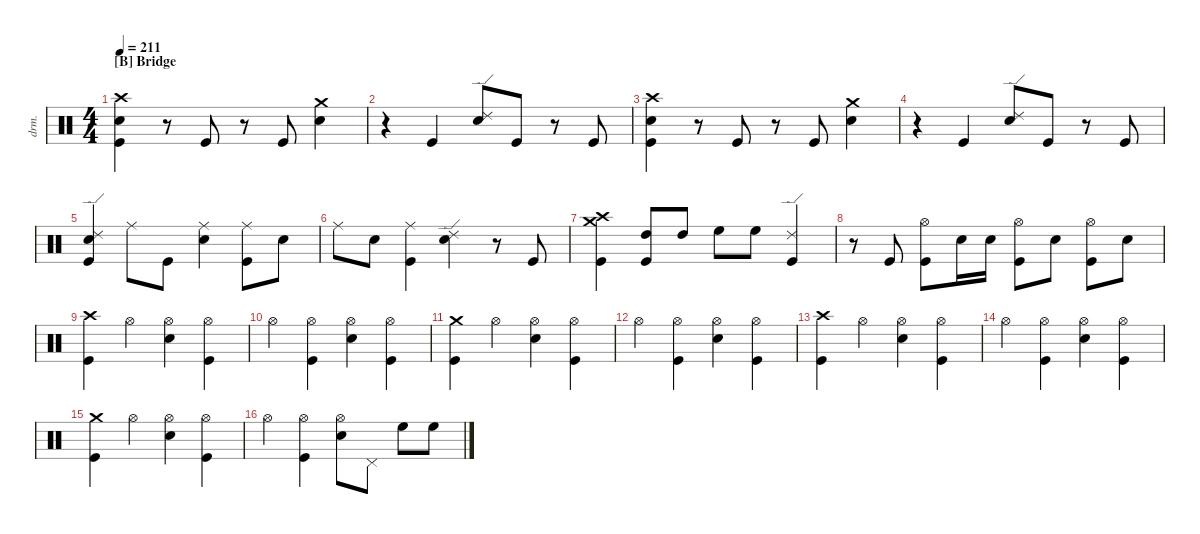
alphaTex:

\defaultSystemsLayout 4
\hideDynamics
\bracketExtendMode nobrackets
\track ("Drums" "drm.") {instrument percussion}
\staff {score}
\articulation defaults
\ts (4 4)
\section ("B" "Bridge")
\tempo 211
\clef neutral
\ks c
("Kick (hit)" "Snare (hit) 2" "Crash high (hit)"{acc #}).4{dy ff} r.8 "Kick (hit)".8 r.8 "Kick (hit)".8 ("Snare (hit) 2" "Crash medium (hit)").4 |
r.4 "Kick (hit)".4 ("Snare (hit) 2" "Ride (edge) 2").8 "Kick (hit)".8 r.8 "Kick (hit)".8 |
("Kick (hit)" "Snare (hit) 2" "Crash high (hit)"{acc #}).4 r.8 "Kick (hit)".8 r.8 "Kick (hit)".8 ("Snare (hit) 2" "Crash medium (hit)").4 |
r.4 "Kick (hit)".4 ("Snare (hit) 2" "Ride (edge) 2").8 "Kick (hit)".8 r.8 "Kick (hit)".8 |
("Kick (hit)" "Snare (hit) 2" "Ride (edge) 2").4 "Ride (middle)"{acc #}.8 "Kick (hit)".8 ("Snare (hit) 2" "Ride (middle)"{acc #}).4 ("Kick (hit)" "Ride (middle)"{acc #}).8 "Snare (hit) 2".8{dy f} |
"Ride (middle)"{acc #}.8{dy fff} "Snare (hit) 2".8{dy mf} ("Kick (hit)" "Ride (middle)"{acc #}).4{dy ff} ("Snare (hit) 2" "Ride (edge) 2").4 r.8 "Kick (hit)".8{dy mf} |
("Kick (hit)" "Crash high (hit)"{acc #} "Crash medium (hit)").4{dy ff} ("Kick (hit)" "High Tom (hit)").8 "High Tom (hit)".8{dy f} "High Floor Tom (hit)".8{dy ff} "High Floor Tom (hit)".8{dy f} ("Kick (hit)" "Ride (edge) 2").4{dy ff} |
r.8 "Kick (hit)".8{dy mf} ("Kick (hit)" "Hi-Hat (open)"{acc #}).8{dy fff} "Snare (hit) 2".16{dy mp} "Snare (hit) 2".16{dy p} ("Kick (hit)" "Hi-Hat (open)"{acc #}).8{dy ff} "Snare (hit) 2".8{dy f} ("Kick (hit)" "Hi-Hat (open)"{acc #}).8{dy ff} "Snare (hit) 2".8{dy f} |
("Kick (hit)" "Crash high (hit)"{acc #}).4{dy ff} "Hi-Hat (open)"{acc #}.4{dy f} ("Snare (hit) 2" "Hi-Hat (open)"{acc #}).4{dy ff} ("Kick (hit)" "Hi-Hat (open)"{acc #}).4 |
"Hi-Hat (open)"{acc #}.4{dy fff} ("Kick (hit)" "Hi-Hat (open)"{acc #}).4{dy ff} ("Snare (hit) 2" "Hi-Hat (open)"{acc #}).4 ("Kick (hit)" "Hi-Hat (open)"{acc #}).4 |
("Kick (hit)" "Crash medium (hit)").4 "Hi-Hat (open)"{acc #}.4{dy f} ("Snare (hit) 2" "Hi-Hat (open)"{acc #}).4{dy ff} ("Kick (hit)" "Hi-Hat (open)"{acc #}).4 |
"Hi-Hat (open)"{acc #}.4{dy fff} ("Kick (hit)" "Hi-Hat (open)"{acc #}).4{dy ff} ("Snare (hit) 2" "Hi-Hat (open)"{acc #}).4 ("Kick (hit)" "Hi-Hat (open)"{acc #}).4 |
("Kick (hit)" "Crash high (hit)"{acc #}).4 "Hi-Hat (open)"{acc #}.4{dy f} ("Snare (hit) 2" "Hi-Hat (open)"{acc #}).4{dy ff} ("Kick (hit)" "Hi-Hat (open)"{acc #}).4 |
"Hi-Hat (open)"{acc #}.4{dy fff} ("Kick (hit)" "Hi-Hat (open)"{acc #}).4{dy ff} ("Snare (hit) 2" "Hi-Hat (open)"{acc #}).4 ("Kick (hit)" "Hi-Hat (open)"{acc #}).4 |
("Kick (hit)" "Crash medium (hit)").4 "Hi-Hat (open)"{acc #}.4{dy f} ("Snare (hit) 2" "Hi-Hat (open)"{acc #}).4{dy ff} ("Kick (hit)" "Hi-Hat (open)"{acc #}).4 |
"Hi-Hat (open)"{acc #}.4{dy fff} ("Kick (hit)" "Hi-Hat (open)"{acc #}).4{dy ff} ("Snare (hit) 2" "Hi-Hat (open)"{acc #}).8 "Pedal Hi-Hat (hit)"{acc #}.8 "High Floor Tom (hit)".8 "High Floor Tom (hit)".8
